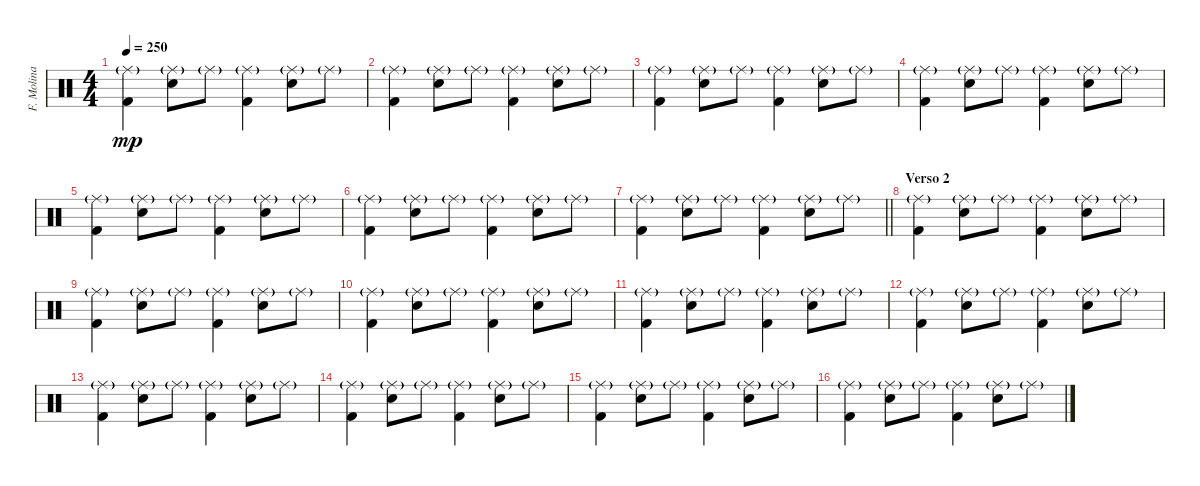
\track ("F. Molina [Batería]" "F. Molina ") {instrument percussion}
\staff {score}
\articulation defaults
\ts (4 4)
\tempo 250
\clef neutral
\ks c
("Ride (middle)"{g} "Kick (hit) 2").4{dy mp} ("Ride (middle)"{g} "Electric Snare (hit)").8 "Ride (middle)"{g}.8 ("Ride (middle)"{g} "Kick (hit) 2").4 ("Ride (middle)"{g} "Electric Snare (hit)").8 "Ride (middle)"{g}.8 |
("Ride (middle)"{g} "Kick (hit) 2").4 ("Ride (middle)"{g} "Electric Snare (hit)").8 "Ride (middle)"{g}.8 ("Ride (middle)"{g} "Kick (hit) 2").4 ("Ride (middle)"{g} "Electric Snare (hit)").8 "Ride (middle)"{g}.8 |
("Ride (middle)"{g} "Kick (hit) 2").4 ("Ride (middle)"{g} "Electric Snare (hit)").8 "Ride (middle)"{g}.8 ("Ride (middle)"{g} "Kick (hit) 2").4 ("Ride (middle)"{g} "Electric Snare (hit)").8 "Ride (middle)"{g}.8 |
("Ride (middle)"{g} "Kick (hit) 2").4 ("Ride (middle)"{g} "Electric Snare (hit)").8 "Ride (middle)"{g}.8 ("Ride (middle)"{g} "Kick (hit) 2").4 ("Ride (middle)"{g} "Electric Snare (hit)").8 "Ride (middle)"{g}.8 |
("Ride (middle)"{g} "Kick (hit) 2").4 ("Ride (middle)"{g} "Electric Snare (hit)").8 "Ride (middle)"{g}.8 ("Ride (middle)"{g} "Kick (hit) 2").4 ("Ride (middle)"{g} "Electric Snare (hit)").8 "Ride (middle)"{g}.8 |
("Ride (middle)"{g} "Kick (hit) 2").4 ("Ride (middle)"{g} "Electric Snare (hit)").8 "Ride (middle)"{g}.8 ("Ride (middle)"{g} "Kick (hit) 2").4 ("Ride (middle)"{g} "Electric Snare (hit)").8 "Ride (middle)"{g}.8 |
\barLineRight lightlight
("Ride (middle)"{g} "Kick (hit) 2").4 ("Ride (middle)"{g} "Electric Snare (hit)").8 "Ride (middle)"{g}.8 ("Ride (middle)"{g} "Kick (hit) 2").4 ("Ride (middle)"{g} "Electric Snare (hit)").8 "Ride (middle)"{g}.8 |
\section ("" "Verso 2")
("Ride (middle)"{g} "Kick (hit) 2").4 ("Ride (middle)"{g} "Electric Snare (hit)").8 "Ride (middle)"{g}.8 ("Ride (middle)"{g} "Kick (hit) 2").4 ("Ride (middle)"{g} "Electric Snare (hit)").8 "Ride (middle)"{g}.8 |
("Ride (middle)"{g} "Kick (hit) 2").4 ("Ride (middle)"{g} "Electric Snare (hit)").8 "Ride (middle)"{g}.8 ("Ride (middle)"{g} "Kick (hit) 2").4 ("Ride (middle)"{g} "Electric Snare (hit)").8 "Ride (middle)"{g}.8 |
("Ride (middle)"{g} "Kick (hit) 2").4 ("Ride (middle)"{g} "Electric Snare (hit)").8 "Ride (middle)"{g}.8 ("Ride (middle)"{g} "Kick (hit) 2").4 ("Ride (middle)"{g} "Electric Snare (hit)").8 "Ride (middle)"{g}.8 |
("Ride (middle)"{g} "Kick (hit) 2").4 ("Ride (middle)"{g} "Electric Snare (hit)").8 "Ride (middle)"{g}.8 ("Ride (middle)"{g} "Kick (hit) 2").4 ("Ride (middle)"{g} "Electric Snare (hit)").8 "Ride (middle)"{g}.8 |
("Ride (middle)"{g} "Kick (hit) 2").4 ("Ride (middle)"{g} "Electric Snare (hit)").8 "Ride (middle)"{g}.8 ("Ride (middle)"{g} "Kick (hit) 2").4 ("Ride (middle)"{g} "Electric Snare (hit)").8 "Ride (middle)"{g}.8 |
("Ride (middle)"{g} "Kick (hit) 2").4 ("Ride (middle)"{g} "Electric Snare (hit)").8 "Ride (middle)"{g}.8 ("Ride (middle)"{g} "Kick (hit) 2").4 ("Ride (middle)"{g} "Electric Snare (hit)").8 "Ride (middle)"{g}.8 |
("Ride (middle)"{g} "Kick (hit) 2").4 ("Ride (middle)"{g} "Electric Snare (hit)").8 "Ride (middle)"{g}.8 ("Ride (middle)"{g} "Kick (hit) 2").4 ("Ride (middle)"{g} "Electric Snare (hit)").8 "Ride (middle)"{g}.8 |
("Ride (middle)"{g} "Kick (hit) 2").4 ("Ride (middle)"{g} "Electric Snare (hit)").8 "Ride (middle)"{g}.8 ("Ride (middle)"{g} "Kick (hit) 2").4 ("Ride (middle)"{g} "Electric Snare (hit)").8 "Ride (middle)"{g}.8 |
("Ride (middle)"{g} "Kick (hit) 2").4 ("Ride (middle)"{g} "Electric Snare (hit)").8 "Ride (middle)"{g}.8 ("Ride (middle)"{g} "Kick (hit) 2").4 ("Ride (middle)"{g} "Electric Snare (hit)").8 "Ride (middle)"{g}.8
